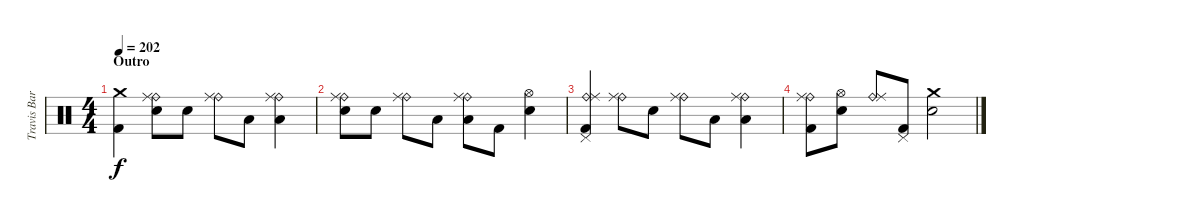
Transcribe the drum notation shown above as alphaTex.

\track ("Travis Barker - Drums" "Travis Bar") {instrument percussion}
\staff {score}
\articulation defaults
\ts (4 4)
\section ("" "Outro")
\tempo 202
\clef neutral
\ks c
("Crash medium (hit)" "Kick (hit) 2").4{dy f} ("Ride (bell)" "Ride (middle)" "Electric Snare (hit)").8 "Electric Snare (hit)".8 ("Ride (bell)" "Ride (middle)").8 "Low Tom (hit)".8 ("Ride (bell)" "Ride (middle)" "Low Tom (hit)").4 |
("Ride (bell)" "Ride (middle)" "Electric Snare (hit)").8 "Electric Snare (hit)".8 ("Ride (bell)" "Ride (middle)").8 "Low Tom (hit)".8 ("Ride (bell)" "Ride (middle)" "Low Tom (hit)").8 "Kick (hit) 2".8 ("Hi-Hat (open)" "Electric Snare (hit)").4 |
("Ride (bell)" "Ride (middle)" "Pedal Hi-Hat (hit)" "Kick (hit) 2").4 ("Ride (bell)" "Ride (middle)").8 "Electric Snare (hit)".8 ("Ride (bell)" "Ride (middle)").8 "Low Tom (hit)".8 ("Ride (bell)" "Ride (middle)" "Low Tom (hit)").4 |
("Ride (bell)" "Ride (middle)" "Kick (hit) 2").8 ("Hi-Hat (open)" "Electric Snare (hit)").8 ("Ride (bell)" "Ride (middle)").8 ("Pedal Hi-Hat (hit)" "Kick (hit) 2").8 ("Crash medium (hit)" "Electric Snare (hit)").2
